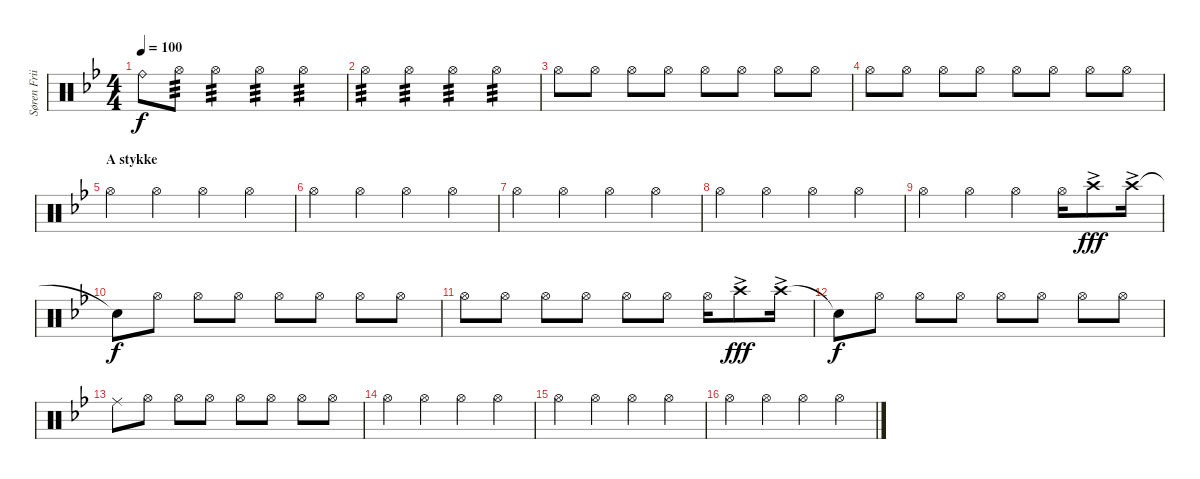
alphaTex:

\track ("Søren Friis (Drums)" "Søren Frii") {instrument percussion}
\staff {score}
\articulation defaults
\ts (4 4)
\tempo 100
\clef neutral
\ks bb "Ride (bell)".8{dy f} "Hi-Hat (open)".8{tp 3} "Hi-Hat (open)".4{tp 3} "Hi-Hat (open)".4{tp 3} "Hi-Hat (open)".4{tp 3}
|
"Hi-Hat (open)".4{tp 3} "Hi-Hat (open)".4{tp 3} "Hi-Hat (open)".4{tp 3} "Hi-Hat (open)".4{tp 3} |
"Hi-Hat (open)".8 "Hi-Hat (open)".8 "Hi-Hat (open)".8 "Hi-Hat (open)".8 "Hi-Hat (open)".8 "Hi-Hat (open)".8 "Hi-Hat (open)".8 "Hi-Hat (open)".8 |
"Hi-Hat (open)".8 "Hi-Hat (open)".8 "Hi-Hat (open)".8 "Hi-Hat (open)".8 "Hi-Hat (open)".8 "Hi-Hat (open)".8 "Hi-Hat (open)".8 "Hi-Hat (open)".8 |
\section ("" "A stykke")
"Hi-Hat (open)".4 "Hi-Hat (open)".4 "Hi-Hat (open)".4 "Hi-Hat (open)".4 |
"Hi-Hat (open)".4 "Hi-Hat (open)".4 "Hi-Hat (open)".4 "Hi-Hat (open)".4 |
"Hi-Hat (open)".4 "Hi-Hat (open)".4 "Hi-Hat (open)".4 "Hi-Hat (open)".4 |
"Hi-Hat (open)".4 "Hi-Hat (open)".4 "Hi-Hat (open)".4 "Hi-Hat (open)".4 |
"Hi-Hat (open)".4 "Hi-Hat (open)".4 "Hi-Hat (open)".4 "Hi-Hat (open)".16 "Crash high (hit)"{ac}.8{dy fff} "Crash high (hit)"{ac}.16 |
"Snare (hit)"{t}.8{dy f} "Hi-Hat (open)".8 "Hi-Hat (open)".8 "Hi-Hat (open)".8 "Hi-Hat (open)".8 "Hi-Hat (open)".8 "Hi-Hat (open)".8 "Hi-Hat (open)".8 |
"Hi-Hat (open)".8 "Hi-Hat (open)".8 "Hi-Hat (open)".8 "Hi-Hat (open)".8 "Hi-Hat (open)".8 "Hi-Hat (open)".8 "Hi-Hat (open)".16 "Crash high (hit)"{ac}.8{dy fff} "Crash high (hit)"{ac}.16 |
"Snare (hit)"{t}.8{dy f} "Hi-Hat (open)".8 "Hi-Hat (open)".8 "Hi-Hat (open)".8 "Hi-Hat (open)".8 "Hi-Hat (open)".8 "Hi-Hat (open)".8 "Hi-Hat (open)".8 |
"Ride (middle)".8 "Hi-Hat (open)".8 "Hi-Hat (open)".8 "Hi-Hat (open)".8 "Hi-Hat (open)".8 "Hi-Hat (open)".8 "Hi-Hat (open)".8 "Hi-Hat (open)".8 |
"Hi-Hat (open)".4 "Hi-Hat (open)".4 "Hi-Hat (open)".4 "Hi-Hat (open)".4 |
"Hi-Hat (open)".4 "Hi-Hat (open)".4 "Hi-Hat (open)".4 "Hi-Hat (open)".4 |
"Hi-Hat (open)".4 "Hi-Hat (open)".4 "Hi-Hat (open)".4 "Hi-Hat (open)".4
